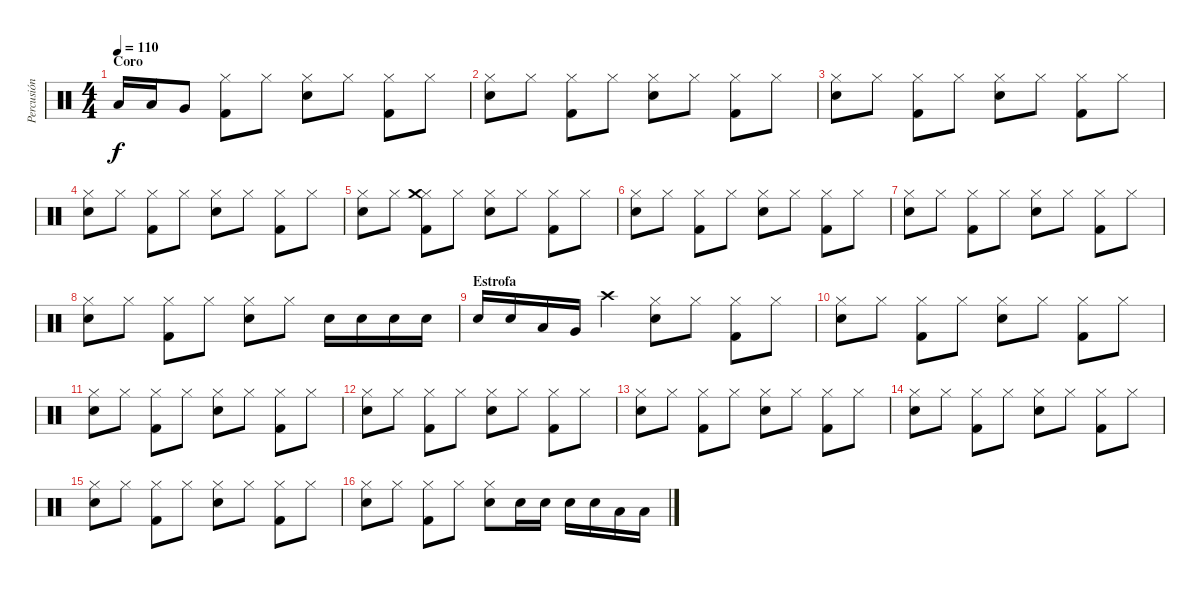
\track ("Percusión" "Percusión") {instrument percussion}
\staff {score}
\articulation defaults
\ts (4 4)
\section ("" "Coro")
\tempo 110
\clef neutral
\ks c "Low Tom (hit)".16{dy f} "Low Tom (hit)".16 "Very Low Tom (hit)".8
("Hi-Hat (closed)" "Kick (hit) 2").8 "Hi-Hat (closed)".8 ("Hi-Hat (closed)" "Electric Snare (hit)").8 "Hi-Hat (closed)".8 ("Hi-Hat (closed)" "Kick (hit) 2").8 "Hi-Hat (closed)".8 |
("Hi-Hat (closed)" "Electric Snare (hit)").8 "Hi-Hat (closed)".8 ("Hi-Hat (closed)" "Kick (hit) 2").8 "Hi-Hat (closed)".8 ("Hi-Hat (closed)" "Electric Snare (hit)").8 "Hi-Hat (closed)".8 ("Hi-Hat (closed)" "Kick (hit) 2").8 "Hi-Hat (closed)".8 |
("Hi-Hat (closed)" "Electric Snare (hit)").8 "Hi-Hat (closed)".8 ("Hi-Hat (closed)" "Kick (hit) 2").8 "Hi-Hat (closed)".8 ("Hi-Hat (closed)" "Electric Snare (hit)").8 "Hi-Hat (closed)".8 ("Hi-Hat (closed)" "Kick (hit) 2").8 "Hi-Hat (closed)".8 |
("Hi-Hat (closed)" "Electric Snare (hit)").8 "Hi-Hat (closed)".8 ("Hi-Hat (closed)" "Kick (hit) 2").8 "Hi-Hat (closed)".8 ("Hi-Hat (closed)" "Electric Snare (hit)").8 "Hi-Hat (closed)".8 ("Hi-Hat (closed)" "Kick (hit) 2").8 "Hi-Hat (closed)".8 |
("Hi-Hat (closed)" "Electric Snare (hit)").8 "Hi-Hat (closed)".8 ("Hi-Hat (closed)" "Kick (hit) 2" "Crash medium (hit)").8 "Hi-Hat (closed)".8 ("Hi-Hat (closed)" "Electric Snare (hit)").8 "Hi-Hat (closed)".8 ("Hi-Hat (closed)" "Kick (hit) 2").8 "Hi-Hat (closed)".8 |
("Hi-Hat (closed)" "Electric Snare (hit)").8 "Hi-Hat (closed)".8 ("Hi-Hat (closed)" "Kick (hit) 2").8 "Hi-Hat (closed)".8 ("Hi-Hat (closed)" "Electric Snare (hit)").8 "Hi-Hat (closed)".8 ("Hi-Hat (closed)" "Kick (hit) 2").8 "Hi-Hat (closed)".8 |
("Hi-Hat (closed)" "Electric Snare (hit)").8 "Hi-Hat (closed)".8 ("Hi-Hat (closed)" "Kick (hit) 2").8 "Hi-Hat (closed)".8 ("Hi-Hat (closed)" "Electric Snare (hit)").8 "Hi-Hat (closed)".8 ("Hi-Hat (closed)" "Kick (hit) 2").8 "Hi-Hat (closed)".8 |
("Hi-Hat (closed)" "Electric Snare (hit)").8 "Hi-Hat (closed)".8 ("Hi-Hat (closed)" "Kick (hit) 2").8 "Hi-Hat (closed)".8 ("Hi-Hat (closed)" "Electric Snare (hit)").8 "Hi-Hat (closed)".8 "Electric Snare (hit)".16 "Electric Snare (hit)".16 "Electric Snare (hit)".16 "Electric Snare (hit)".16 |
\section ("" "Estrofa")
"Electric Snare (hit)".16 "Electric Snare (hit)".16 "Low Tom (hit)".16 "Very Low Tom (hit)".16 "Crash high (hit)".4 ("Hi-Hat (closed)" "Electric Snare (hit)").8 "Hi-Hat (closed)".8 ("Hi-Hat (closed)" "Kick (hit) 2").8 "Hi-Hat (closed)".8 |
("Hi-Hat (closed)" "Electric Snare (hit)").8 "Hi-Hat (closed)".8 ("Hi-Hat (closed)" "Kick (hit) 2").8 "Hi-Hat (closed)".8 ("Hi-Hat (closed)" "Electric Snare (hit)").8 "Hi-Hat (closed)".8 ("Hi-Hat (closed)" "Kick (hit) 2").8 "Hi-Hat (closed)".8 |
("Hi-Hat (closed)" "Electric Snare (hit)").8 "Hi-Hat (closed)".8 ("Hi-Hat (closed)" "Kick (hit) 2").8 "Hi-Hat (closed)".8 ("Hi-Hat (closed)" "Electric Snare (hit)").8 "Hi-Hat (closed)".8 ("Hi-Hat (closed)" "Kick (hit) 2").8 "Hi-Hat (closed)".8 |
("Hi-Hat (closed)" "Electric Snare (hit)").8 "Hi-Hat (closed)".8 ("Hi-Hat (closed)" "Kick (hit) 2").8 "Hi-Hat (closed)".8 ("Hi-Hat (closed)" "Electric Snare (hit)").8 "Hi-Hat (closed)".8 ("Hi-Hat (closed)" "Kick (hit) 2").8 "Hi-Hat (closed)".8 |
("Hi-Hat (closed)" "Electric Snare (hit)").8 "Hi-Hat (closed)".8 ("Hi-Hat (closed)" "Kick (hit) 2").8 "Hi-Hat (closed)".8 ("Hi-Hat (closed)" "Electric Snare (hit)").8 "Hi-Hat (closed)".8 ("Hi-Hat (closed)" "Kick (hit) 2").8 "Hi-Hat (closed)".8 |
("Hi-Hat (closed)" "Electric Snare (hit)").8 "Hi-Hat (closed)".8 ("Hi-Hat (closed)" "Kick (hit) 2").8 "Hi-Hat (closed)".8 ("Hi-Hat (closed)" "Electric Snare (hit)").8 "Hi-Hat (closed)".8 ("Hi-Hat (closed)" "Kick (hit) 2").8 "Hi-Hat (closed)".8 |
("Hi-Hat (closed)" "Electric Snare (hit)").8 "Hi-Hat (closed)".8 ("Hi-Hat (closed)" "Kick (hit) 2").8 "Hi-Hat (closed)".8 ("Hi-Hat (closed)" "Electric Snare (hit)").8 "Hi-Hat (closed)".8 ("Hi-Hat (closed)" "Kick (hit) 2").8 "Hi-Hat (closed)".8 |
("Hi-Hat (closed)" "Electric Snare (hit)").8 "Hi-Hat (closed)".8 ("Hi-Hat (closed)" "Kick (hit) 2").8 "Hi-Hat (closed)".8 ("Hi-Hat (closed)" "Electric Snare (hit)").8 "Electric Snare (hit)".16 "Electric Snare (hit)".16 "Electric Snare (hit)".16 "Electric Snare (hit)".16 "Low Tom (hit)".16 "Low Tom (hit)".16
